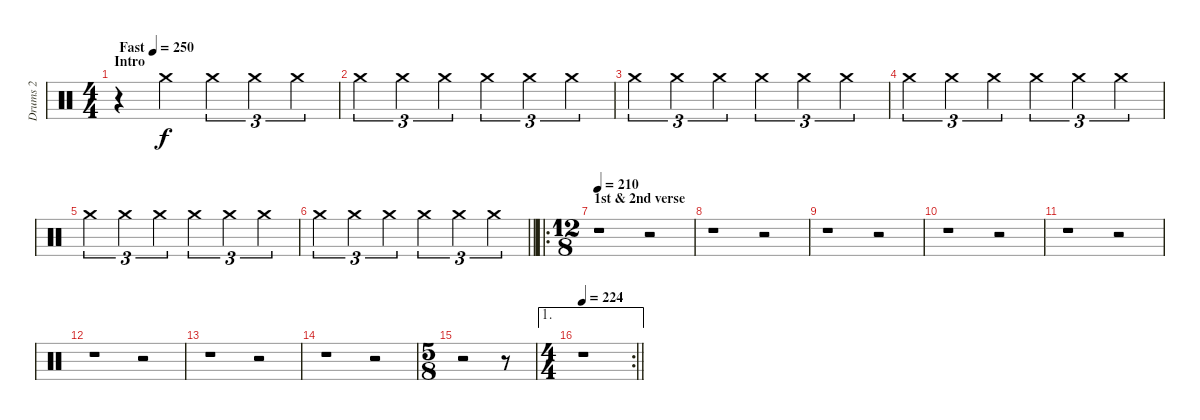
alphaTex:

\track ("Drums 2" "Drums 2") {instrument percussion}
\staff {score}
\articulation defaults
\ts (4 4)
\section ("" "Intro")
\tempo (250 "Fast")
\clef neutral
\ks c
r.4{dy f} "Crash medium (hit)".4 "Crash medium (hit)".4{tu (3 2)} "Crash medium (hit)".4{tu (3 2)} "Crash medium (hit)".4{tu (3 2)} |
"Crash medium (hit)".4{tu (3 2)} "Crash medium (hit)".4{tu (3 2)} "Crash medium (hit)".4{tu (3 2)} "Crash medium (hit)".4{tu (3 2)} "Crash medium (hit)".4{tu (3 2)} "Crash medium (hit)".4{tu (3 2)} |
"Crash medium (hit)".4{tu (3 2)} "Crash medium (hit)".4{tu (3 2)} "Crash medium (hit)".4{tu (3 2)} "Crash medium (hit)".4{tu (3 2)} "Crash medium (hit)".4{tu (3 2)} "Crash medium (hit)".4{tu (3 2)} |
"Crash medium (hit)".4{tu (3 2)} "Crash medium (hit)".4{tu (3 2)} "Crash medium (hit)".4{tu (3 2)} "Crash medium (hit)".4{tu (3 2)} "Crash medium (hit)".4{tu (3 2)} "Crash medium (hit)".4{tu (3 2)} |
"Crash medium (hit)".4{tu (3 2)} "Crash medium (hit)".4{tu (3 2)} "Crash medium (hit)".4{tu (3 2)} "Crash medium (hit)".4{tu (3 2)} "Crash medium (hit)".4{tu (3 2)} "Crash medium (hit)".4{tu (3 2)} |
\barLineRight lightlight "Crash medium (hit)".4{tu (3 2)} "Crash medium (hit)".4{tu (3 2)} "Crash medium (hit)".4{tu (3 2)} "Crash medium (hit)".4{tu (3 2)} "Crash medium (hit)".4{tu (3 2)} "Crash medium (hit)".4{tu (3 2)}
|
\ro
\ts (12 8)
\section ("" "1st & 2nd verse")
\tempo 210
r.1 r.2 |
r.1 r.2 |
r.1 r.2 |
r.1 r.2 |
r.1 r.2 |
r.1 r.2 |
r.1 r.2 |
r.1 r.2 |
\ts (5 8)
r.2 r.8 |
\ae 1
\rc 2
\ts (4 4)
\tempo 224
\barLineRight lightlight
r.1
